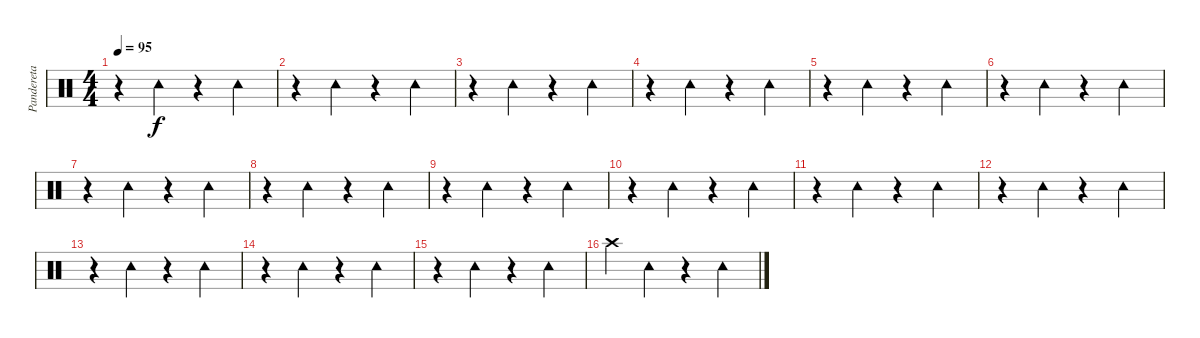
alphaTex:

\track ("Pandereta" "Pandereta") {instrument percussion}
\staff {score}
\articulation defaults
\ts (4 4)
\tempo 95
\clef neutral
\ks c
r.4{dy f} "Tambourine (hit)".4 r.4 "Tambourine (hit)".4 |
r.4 "Tambourine (hit)".4 r.4 "Tambourine (hit)".4 |
r.4 "Tambourine (hit)".4 r.4 "Tambourine (hit)".4 |
r.4 "Tambourine (hit)".4 r.4 "Tambourine (hit)".4 |
r.4 "Tambourine (hit)".4 r.4 "Tambourine (hit)".4 |
r.4 "Tambourine (hit)".4 r.4 "Tambourine (hit)".4 |
r.4 "Tambourine (hit)".4 r.4 "Tambourine (hit)".4 |
r.4 "Tambourine (hit)".4 r.4 "Tambourine (hit)".4 |
r.4 "Tambourine (hit)".4 r.4 "Tambourine (hit)".4 |
r.4 "Tambourine (hit)".4 r.4 "Tambourine (hit)".4 |
r.4 "Tambourine (hit)".4 r.4 "Tambourine (hit)".4 |
r.4 "Tambourine (hit)".4 r.4 "Tambourine (hit)".4 |
r.4 "Tambourine (hit)".4 r.4 "Tambourine (hit)".4 |
r.4 "Tambourine (hit)".4 r.4 "Tambourine (hit)".4 |
r.4 "Tambourine (hit)".4 r.4 "Tambourine (hit)".4 |
"Crash high (hit)".4 "Tambourine (hit)".4 r.4 "Tambourine (hit)".4
